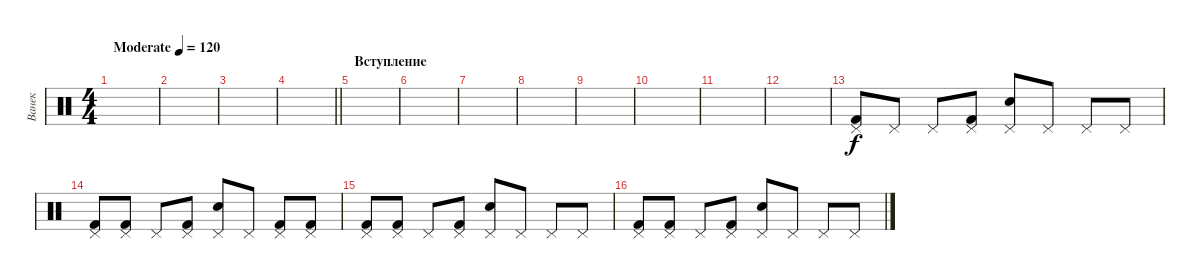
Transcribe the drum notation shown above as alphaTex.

\track ("Ванек" "Ванек") {instrument percussion}
\staff {score}
\articulation defaults
\ts (4 4)
\tempo (120 "Moderate")
\clef neutral
\ks c
|
|
|
\barLineRight lightlight
|
\section ("" "Вступление")
|
|
|
|
|
|
|
|
("Kick (hit) 2" "Pedal Hi-Hat (hit)").8 "Pedal Hi-Hat (hit)".8 "Pedal Hi-Hat (hit)".8 ("Kick (hit) 2" "Pedal Hi-Hat (hit)").8 ("Electric Snare (hit)" "Pedal Hi-Hat (hit)").8 "Pedal Hi-Hat (hit)".8 "Pedal Hi-Hat (hit)".8 "Pedal Hi-Hat (hit)".8 |
("Kick (hit) 2" "Pedal Hi-Hat (hit)").8 ("Kick (hit) 2" "Pedal Hi-Hat (hit)").8 "Pedal Hi-Hat (hit)".8 ("Kick (hit) 2" "Pedal Hi-Hat (hit)").8 ("Electric Snare (hit)" "Pedal Hi-Hat (hit)").8 "Pedal Hi-Hat (hit)".8 ("Kick (hit) 2" "Pedal Hi-Hat (hit)").8 ("Kick (hit) 2" "Pedal Hi-Hat (hit)").8 |
("Kick (hit) 2" "Pedal Hi-Hat (hit)").8 ("Kick (hit) 2" "Pedal Hi-Hat (hit)").8 "Pedal Hi-Hat (hit)".8 ("Kick (hit) 2" "Pedal Hi-Hat (hit)").8 ("Electric Snare (hit)" "Pedal Hi-Hat (hit)").8 "Pedal Hi-Hat (hit)".8 "Pedal Hi-Hat (hit)".8 "Pedal Hi-Hat (hit)".8 |
("Kick (hit) 2" "Pedal Hi-Hat (hit)").8 ("Kick (hit) 2" "Pedal Hi-Hat (hit)").8 "Pedal Hi-Hat (hit)".8 ("Kick (hit) 2" "Pedal Hi-Hat (hit)").8 ("Electric Snare (hit)" "Pedal Hi-Hat (hit)").8 "Pedal Hi-Hat (hit)".8 "Pedal Hi-Hat (hit)".8 "Pedal Hi-Hat (hit)".8
